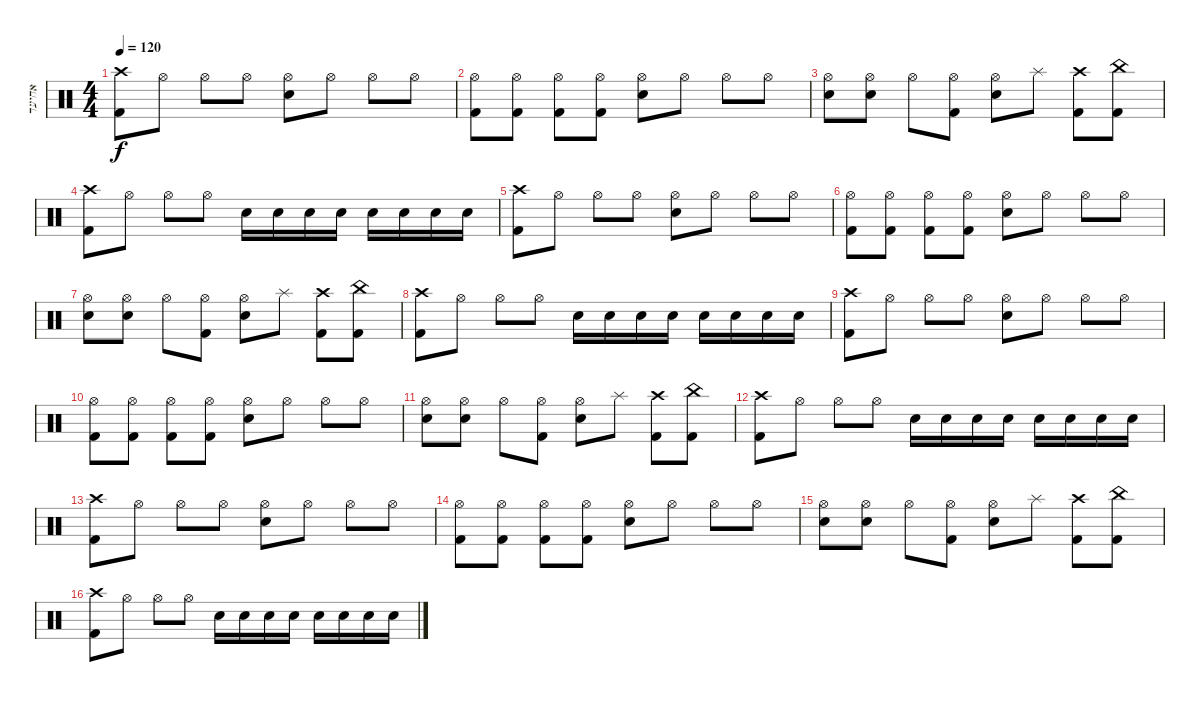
\track ("אחיעד" "אחיעד") {instrument percussion}
\staff {score}
\articulation defaults
\ts (4 4)
\tempo 120
\clef neutral
\ks c
("Crash high (hit)" "Kick (hit) 2").8{dy f} "Hi-Hat (open)".8 "Hi-Hat (open)".8 "Hi-Hat (open)".8 ("Hi-Hat (open)" "Snare (hit) 2").8 "Hi-Hat (open)".8 "Hi-Hat (open)".8 "Hi-Hat (open)".8 |
("Hi-Hat (open)" "Kick (hit) 2").8 ("Hi-Hat (open)" "Kick (hit) 2").8 ("Hi-Hat (open)" "Kick (hit) 2").8 ("Hi-Hat (open)" "Kick (hit) 2").8 ("Hi-Hat (open)" "Snare (hit) 2").8 "Hi-Hat (open)".8 "Hi-Hat (open)".8 "Hi-Hat (open)".8 |
("Hi-Hat (open)" "Snare (hit) 2").8 ("Hi-Hat (open)" "Snare (hit) 2").8 "Hi-Hat (open)".8 ("Hi-Hat (open)" "Kick (hit) 2").8 ("Hi-Hat (open)" "Snare (hit) 2").8 "Splash (hit)".8 ("Crash high (hit)" "Kick (hit) 2").8 ("China (hit)" "Kick (hit) 2").8 |
("Crash high (hit)" "Kick (hit) 2").8 "Hi-Hat (open)".8 "Hi-Hat (open)".8 "Hi-Hat (open)".8 "Snare (hit) 2".16 "Snare (hit) 2".16 "Snare (hit) 2".16 "Snare (hit) 2".16 "Snare (hit) 2".16 "Snare (hit) 2".16 "Snare (hit) 2".16 "Snare (hit) 2".16 |
("Crash high (hit)" "Kick (hit) 2").8 "Hi-Hat (open)".8 "Hi-Hat (open)".8 "Hi-Hat (open)".8 ("Hi-Hat (open)" "Snare (hit) 2").8 "Hi-Hat (open)".8 "Hi-Hat (open)".8 "Hi-Hat (open)".8 |
("Hi-Hat (open)" "Kick (hit) 2").8 ("Hi-Hat (open)" "Kick (hit) 2").8 ("Hi-Hat (open)" "Kick (hit) 2").8 ("Hi-Hat (open)" "Kick (hit) 2").8 ("Hi-Hat (open)" "Snare (hit) 2").8 "Hi-Hat (open)".8 "Hi-Hat (open)".8 "Hi-Hat (open)".8 |
("Hi-Hat (open)" "Snare (hit) 2").8 ("Hi-Hat (open)" "Snare (hit) 2").8 "Hi-Hat (open)".8 ("Hi-Hat (open)" "Kick (hit) 2").8 ("Hi-Hat (open)" "Snare (hit) 2").8 "Splash (hit)".8 ("Crash high (hit)" "Kick (hit) 2").8 ("China (hit)" "Kick (hit) 2").8 |
("Crash high (hit)" "Kick (hit) 2").8 "Hi-Hat (open)".8 "Hi-Hat (open)".8 "Hi-Hat (open)".8 "Snare (hit) 2".16 "Snare (hit) 2".16 "Snare (hit) 2".16 "Snare (hit) 2".16 "Snare (hit) 2".16 "Snare (hit) 2".16 "Snare (hit) 2".16 "Snare (hit) 2".16 |
("Crash high (hit)" "Kick (hit) 2").8 "Hi-Hat (open)".8 "Hi-Hat (open)".8 "Hi-Hat (open)".8 ("Hi-Hat (open)" "Snare (hit) 2").8 "Hi-Hat (open)".8 "Hi-Hat (open)".8 "Hi-Hat (open)".8 |
("Hi-Hat (open)" "Kick (hit) 2").8 ("Hi-Hat (open)" "Kick (hit) 2").8 ("Hi-Hat (open)" "Kick (hit) 2").8 ("Hi-Hat (open)" "Kick (hit) 2").8 ("Hi-Hat (open)" "Snare (hit) 2").8 "Hi-Hat (open)".8 "Hi-Hat (open)".8 "Hi-Hat (open)".8 |
("Hi-Hat (open)" "Snare (hit) 2").8 ("Hi-Hat (open)" "Snare (hit) 2").8 "Hi-Hat (open)".8 ("Hi-Hat (open)" "Kick (hit) 2").8 ("Hi-Hat (open)" "Snare (hit) 2").8 "Splash (hit)".8 ("Crash high (hit)" "Kick (hit) 2").8 ("China (hit)" "Kick (hit) 2").8 |
("Crash high (hit)" "Kick (hit) 2").8 "Hi-Hat (open)".8 "Hi-Hat (open)".8 "Hi-Hat (open)".8 "Snare (hit) 2".16 "Snare (hit) 2".16 "Snare (hit) 2".16 "Snare (hit) 2".16 "Snare (hit) 2".16 "Snare (hit) 2".16 "Snare (hit) 2".16 "Snare (hit) 2".16 |
("Crash high (hit)" "Kick (hit) 2").8 "Hi-Hat (open)".8 "Hi-Hat (open)".8 "Hi-Hat (open)".8 ("Hi-Hat (open)" "Snare (hit) 2").8 "Hi-Hat (open)".8 "Hi-Hat (open)".8 "Hi-Hat (open)".8 |
("Hi-Hat (open)" "Kick (hit) 2").8 ("Hi-Hat (open)" "Kick (hit) 2").8 ("Hi-Hat (open)" "Kick (hit) 2").8 ("Hi-Hat (open)" "Kick (hit) 2").8 ("Hi-Hat (open)" "Snare (hit) 2").8 "Hi-Hat (open)".8 "Hi-Hat (open)".8 "Hi-Hat (open)".8 |
("Hi-Hat (open)" "Snare (hit) 2").8 ("Hi-Hat (open)" "Snare (hit) 2").8 "Hi-Hat (open)".8 ("Hi-Hat (open)" "Kick (hit) 2").8 ("Hi-Hat (open)" "Snare (hit) 2").8 "Splash (hit)".8 ("Crash high (hit)" "Kick (hit) 2").8 ("China (hit)" "Kick (hit) 2").8 |
("Crash high (hit)" "Kick (hit) 2").8 "Hi-Hat (open)".8 "Hi-Hat (open)".8 "Hi-Hat (open)".8 "Snare (hit) 2".16 "Snare (hit) 2".16 "Snare (hit) 2".16 "Snare (hit) 2".16 "Snare (hit) 2".16 "Snare (hit) 2".16 "Snare (hit) 2".16 "Snare (hit) 2".16
